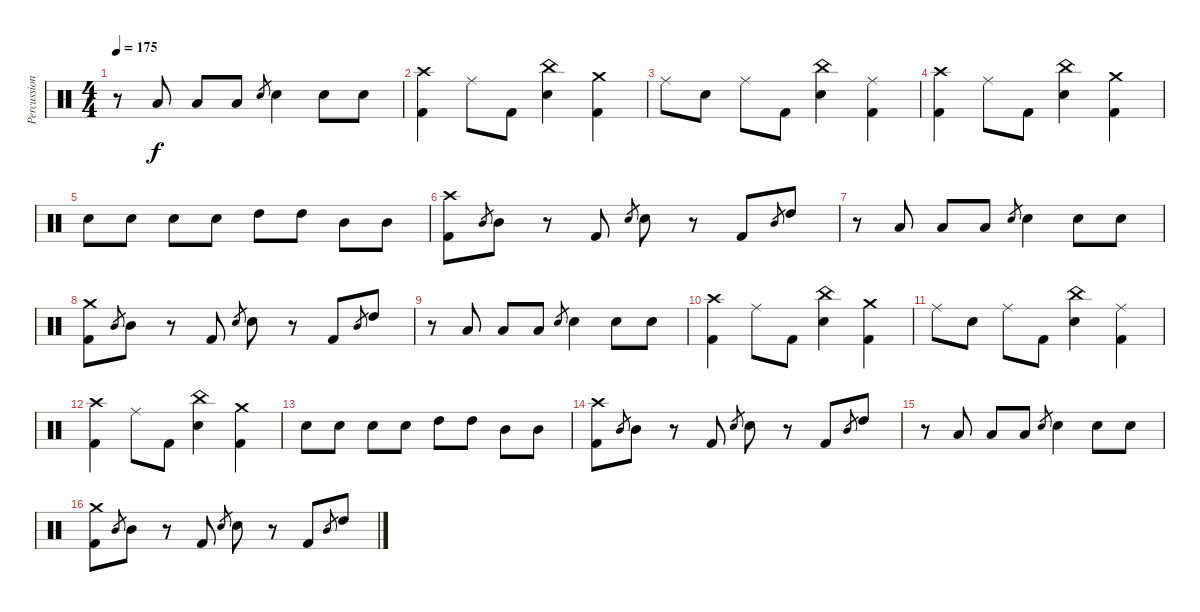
\track ("Percussion" "Percussion") {instrument percussion}
\staff {score}
\articulation defaults
\ts (4 4)
\tempo 175
\clef neutral
\ks c
r.8{dy f} "Low Tom (hit)".8 "Low Tom (hit)".8 "Low Tom (hit)".8 "Electric Snare (hit)".8{gr} "Electric Snare (hit)".4 "Electric Snare (hit)".8 "Electric Snare (hit)".8 |
("Crash high (hit)" "Kick (hit) 2").4 "Ride (middle)".8 "Kick (hit) 2".8 ("China (hit)" "Electric Snare (hit)").4 ("Crash medium (hit)" "Kick (hit) 2").4 |
"Ride (middle)".8 "Electric Snare (hit)".8 "Ride (middle)".8 "Kick (hit) 2".8 ("China (hit)" "Electric Snare (hit)").4 ("Ride (middle)" "Kick (hit) 2").4 |
("Crash high (hit)" "Kick (hit) 2").4 "Ride (middle)".8 "Kick (hit) 2".8 ("China (hit)" "Electric Snare (hit)").4 ("Crash medium (hit)" "Kick (hit) 2").4 |
"Electric Snare (hit)".8 "Electric Snare (hit)".8 "Electric Snare (hit)".8 "Electric Snare (hit)".8 "High Tom (hit)".8 "High Tom (hit)".8 "Mid Tom (hit)".8 "Mid Tom (hit)".8 |
("Crash high (hit)" "Kick (hit) 2").8 "Mid Tom (hit)".8{gr} "Mid Tom (hit)".8 r.8 "Kick (hit) 2".8 "Electric Snare (hit)".8{gr} "Electric Snare (hit)".8 r.8 "Kick (hit) 2".8 "Mid Tom (hit)".8{gr} "High Tom (hit)".8 |
r.8 "Low Tom (hit)".8 "Low Tom (hit)".8 "Low Tom (hit)".8 "Electric Snare (hit)".8{gr} "Electric Snare (hit)".4 "Electric Snare (hit)".8 "Electric Snare (hit)".8 |
("Crash medium (hit)" "Kick (hit) 2").8 "Mid Tom (hit)".8{gr} "Mid Tom (hit)".8 r.8 "Kick (hit) 2".8 "Electric Snare (hit)".8{gr} "Electric Snare (hit)".8 r.8 "Kick (hit) 2".8 "Mid Tom (hit)".8{gr} "High Tom (hit)".8 |
r.8 "Low Tom (hit)".8 "Low Tom (hit)".8 "Low Tom (hit)".8 "Electric Snare (hit)".8{gr} "Electric Snare (hit)".4 "Electric Snare (hit)".8 "Electric Snare (hit)".8 |
("Crash high (hit)" "Kick (hit) 2").4 "Ride (middle)".8 "Kick (hit) 2".8 ("China (hit)" "Electric Snare (hit)").4 ("Crash medium (hit)" "Kick (hit) 2").4 |
"Ride (middle)".8 "Electric Snare (hit)".8 "Ride (middle)".8 "Kick (hit) 2".8 ("China (hit)" "Electric Snare (hit)").4 ("Ride (middle)" "Kick (hit) 2").4 |
("Crash high (hit)" "Kick (hit) 2").4 "Ride (middle)".8 "Kick (hit) 2".8 ("China (hit)" "Electric Snare (hit)").4 ("Crash medium (hit)" "Kick (hit) 2").4 |
"Electric Snare (hit)".8 "Electric Snare (hit)".8 "Electric Snare (hit)".8 "Electric Snare (hit)".8 "High Tom (hit)".8 "High Tom (hit)".8 "Mid Tom (hit)".8 "Mid Tom (hit)".8 |
("Crash high (hit)" "Kick (hit) 2").8 "Mid Tom (hit)".8{gr} "Mid Tom (hit)".8 r.8 "Kick (hit) 2".8 "Electric Snare (hit)".8{gr} "Electric Snare (hit)".8 r.8 "Kick (hit) 2".8 "Mid Tom (hit)".8{gr} "High Tom (hit)".8 |
r.8 "Low Tom (hit)".8 "Low Tom (hit)".8 "Low Tom (hit)".8 "Electric Snare (hit)".8{gr} "Electric Snare (hit)".4 "Electric Snare (hit)".8 "Electric Snare (hit)".8 |
("Crash medium (hit)" "Kick (hit) 2").8 "Mid Tom (hit)".8{gr} "Mid Tom (hit)".8 r.8 "Kick (hit) 2".8 "Electric Snare (hit)".8{gr} "Electric Snare (hit)".8 r.8 "Kick (hit) 2".8 "Mid Tom (hit)".8{gr} "High Tom (hit)".8
